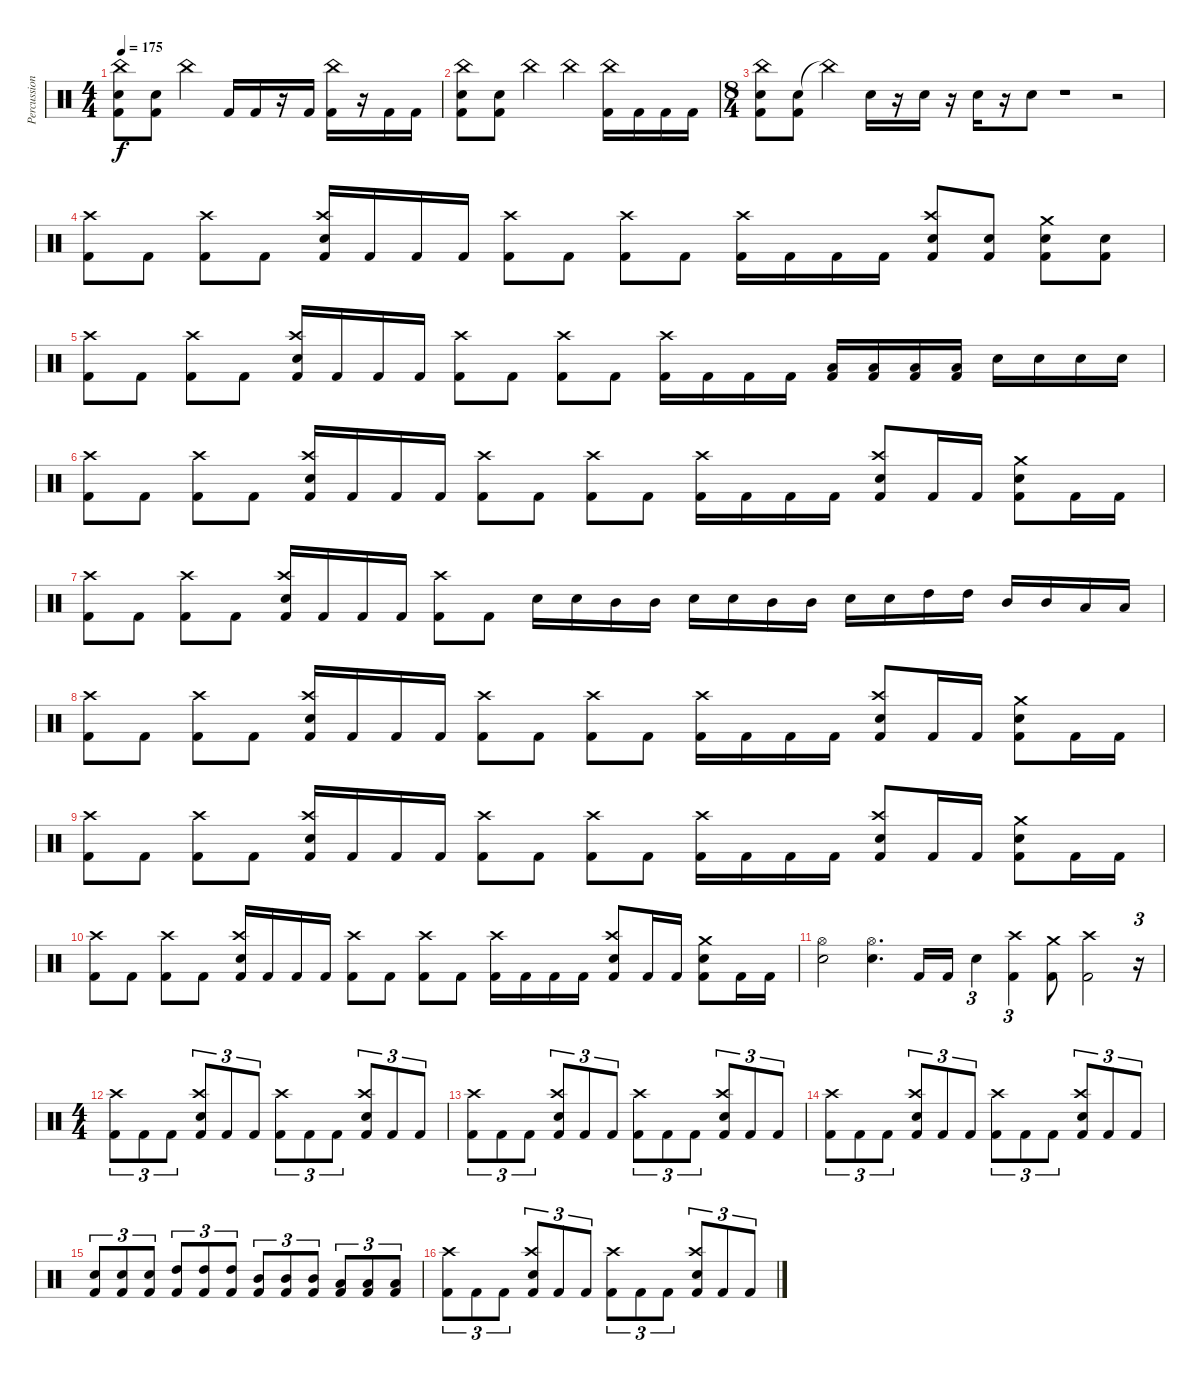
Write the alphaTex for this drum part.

\track ("Percussion" "Percussion") {instrument percussion}
\staff {score}
\articulation defaults
\ts (4 4)
\tempo 175
\clef neutral
\ks c
("China (hit)" "Snare (hit) 2" "Kick (hit) 2").8{dy f} ("Snare (hit) 2" "Kick (hit) 2").8 "China (hit)".4 "Kick (hit) 2".16 "Kick (hit) 2".16 r.16 "Kick (hit) 2".16 ("China (hit)" "Kick (hit) 2").16 r.16 "Kick (hit) 2".16 "Kick (hit) 2".16 |
("China (hit)" "Snare (hit) 2" "Kick (hit) 2").8 ("Snare (hit) 2" "Kick (hit) 2").8 "China (hit)".4 "China (hit)".4 ("China (hit)" "Kick (hit) 2").16 "Kick (hit) 2".16 "Kick (hit) 2".16 "Kick (hit) 2".16 |
\ts (8 4)
("China (hit)" "Snare (hit) 2" "Kick (hit) 2").8 ("Snare (hit) 2" "Kick (hit) 2").8 "China (hit)"{t}.4 "Snare (hit) 2".16 r.16 "Snare (hit) 2".16 r.16 "Snare (hit) 2".16 r.16 "Snare (hit) 2".8 r.1 r.2 |
("Crash high (hit)" "Kick (hit) 2").8 "Kick (hit) 2".8 ("Crash high (hit)" "Kick (hit) 2").8 "Kick (hit) 2".8 ("Crash high (hit)" "Electric Snare (hit)" "Kick (hit) 2").16 "Kick (hit) 2".16 "Kick (hit) 2".16 "Kick (hit) 2".16 ("Crash high (hit)" "Kick (hit) 2").8 "Kick (hit) 2".8 ("Crash high (hit)" "Kick (hit) 2").8 "Kick (hit) 2".8 ("Crash high (hit)" "Kick (hit) 2").16 "Kick (hit) 2".16 "Kick (hit) 2".16 "Kick (hit) 2".16 ("Crash high (hit)" "Electric Snare (hit)" "Kick (hit) 2").8 ("Electric Snare (hit)" "Kick (hit) 2").8 ("Crash medium (hit)" "Electric Snare (hit)" "Kick (hit) 2").8 ("Electric Snare (hit)" "Kick (hit) 2").8 |
("Crash high (hit)" "Kick (hit) 2").8 "Kick (hit) 2".8 ("Crash high (hit)" "Kick (hit) 2").8 "Kick (hit) 2".8 ("Crash high (hit)" "Electric Snare (hit)" "Kick (hit) 2").16 "Kick (hit) 2".16 "Kick (hit) 2".16 "Kick (hit) 2".16 ("Crash high (hit)" "Kick (hit) 2").8 "Kick (hit) 2".8 ("Crash high (hit)" "Kick (hit) 2").8 "Kick (hit) 2".8 ("Crash high (hit)" "Kick (hit) 2").16 "Kick (hit) 2".16 "Kick (hit) 2".16 "Kick (hit) 2".16 ("Low Tom (hit)" "Kick (hit) 2").16 ("Low Tom (hit)" "Kick (hit) 2").16 ("Low Tom (hit)" "Kick (hit) 2").16 ("Low Tom (hit)" "Kick (hit) 2").16 "Electric Snare (hit)".16 "Electric Snare (hit)".16 "Electric Snare (hit)".16 "Electric Snare (hit)".16 |
("Crash high (hit)" "Kick (hit) 2").8 "Kick (hit) 2".8 ("Crash high (hit)" "Kick (hit) 2").8 "Kick (hit) 2".8 ("Crash high (hit)" "Electric Snare (hit)" "Kick (hit) 2").16 "Kick (hit) 2".16 "Kick (hit) 2".16 "Kick (hit) 2".16 ("Crash high (hit)" "Kick (hit) 2").8 "Kick (hit) 2".8 ("Crash high (hit)" "Kick (hit) 2").8 "Kick (hit) 2".8 ("Crash high (hit)" "Kick (hit) 2").16 "Kick (hit) 2".16 "Kick (hit) 2".16 "Kick (hit) 2".16 ("Crash high (hit)" "Electric Snare (hit)" "Kick (hit) 2").8 "Kick (hit) 2".16 "Kick (hit) 2".16 ("Crash medium (hit)" "Electric Snare (hit)" "Kick (hit) 2").8 "Kick (hit) 2".16 "Kick (hit) 2".16 |
("Crash high (hit)" "Kick (hit) 2").8 "Kick (hit) 2".8 ("Crash high (hit)" "Kick (hit) 2").8 "Kick (hit) 2".8 ("Crash high (hit)" "Electric Snare (hit)" "Kick (hit) 2").16 "Kick (hit) 2".16 "Kick (hit) 2".16 "Kick (hit) 2".16 ("Crash high (hit)" "Kick (hit) 2").8 "Kick (hit) 2".8 "Electric Snare (hit)".16 "Electric Snare (hit)".16 "Mid Tom (hit)".16 "Mid Tom (hit)".16 "Electric Snare (hit)".16 "Electric Snare (hit)".16 "Mid Tom (hit)".16 "Mid Tom (hit)".16 "Electric Snare (hit)".16 "Electric Snare (hit)".16 "High Tom (hit)".16 "High Tom (hit)".16 "Mid Tom (hit)".16 "Mid Tom (hit)".16 "Low Tom (hit)".16 "Low Tom (hit)".16 |
("Crash high (hit)" "Kick (hit) 2").8 "Kick (hit) 2".8 ("Crash high (hit)" "Kick (hit) 2").8 "Kick (hit) 2".8 ("Crash high (hit)" "Electric Snare (hit)" "Kick (hit) 2").16 "Kick (hit) 2".16 "Kick (hit) 2".16 "Kick (hit) 2".16 ("Crash high (hit)" "Kick (hit) 2").8 "Kick (hit) 2".8 ("Crash high (hit)" "Kick (hit) 2").8 "Kick (hit) 2".8 ("Crash high (hit)" "Kick (hit) 2").16 "Kick (hit) 2".16 "Kick (hit) 2".16 "Kick (hit) 2".16 ("Crash high (hit)" "Electric Snare (hit)" "Kick (hit) 2").8 "Kick (hit) 2".16 "Kick (hit) 2".16 ("Crash medium (hit)" "Electric Snare (hit)" "Kick (hit) 2").8 "Kick (hit) 2".16 "Kick (hit) 2".16 |
("Crash high (hit)" "Kick (hit) 2").8 "Kick (hit) 2".8 ("Crash high (hit)" "Kick (hit) 2").8 "Kick (hit) 2".8 ("Crash high (hit)" "Electric Snare (hit)" "Kick (hit) 2").16 "Kick (hit) 2".16 "Kick (hit) 2".16 "Kick (hit) 2".16 ("Crash high (hit)" "Kick (hit) 2").8 "Kick (hit) 2".8 ("Crash high (hit)" "Kick (hit) 2").8 "Kick (hit) 2".8 ("Crash high (hit)" "Kick (hit) 2").16 "Kick (hit) 2".16 "Kick (hit) 2".16 "Kick (hit) 2".16 ("Crash high (hit)" "Electric Snare (hit)" "Kick (hit) 2").8 "Kick (hit) 2".16 "Kick (hit) 2".16 ("Crash medium (hit)" "Electric Snare (hit)" "Kick (hit) 2").8 "Kick (hit) 2".16 "Kick (hit) 2".16 |
("Crash high (hit)" "Kick (hit) 2").8 "Kick (hit) 2".8 ("Crash high (hit)" "Kick (hit) 2").8 "Kick (hit) 2".8 ("Crash high (hit)" "Electric Snare (hit)" "Kick (hit) 2").16 "Kick (hit) 2".16 "Kick (hit) 2".16 "Kick (hit) 2".16 ("Crash high (hit)" "Kick (hit) 2").8 "Kick (hit) 2".8 ("Crash high (hit)" "Kick (hit) 2").8 "Kick (hit) 2".8 ("Crash high (hit)" "Kick (hit) 2").16 "Kick (hit) 2".16 "Kick (hit) 2".16 "Kick (hit) 2".16 ("Crash high (hit)" "Electric Snare (hit)" "Kick (hit) 2").8 "Kick (hit) 2".16 "Kick (hit) 2".16 ("Crash medium (hit)" "Electric Snare (hit)" "Kick (hit) 2").8 "Kick (hit) 2".16 "Kick (hit) 2".16 |
("Hi-Hat (open)" "Electric Snare (hit)").2 ("Hi-Hat (open)" "Electric Snare (hit)").4{d} "Kick (hit) 2".16 "Kick (hit) 2".16 "Electric Snare (hit)".4{tu (3 2)} ("Crash high (hit)" "Kick (hit) 2").4{tu (3 2)} ("Crash medium (hit)" "Kick (hit) 2").8 ("Crash high (hit)" "Kick (hit) 2").2 r.16{tu (3 2)} |
\ts (4 4)
("Crash high (hit)" "Kick (hit) 2").8{tu (3 2)} "Kick (hit) 2".8{tu (3 2)} "Kick (hit) 2".8{tu (3 2)} ("Crash high (hit)" "Electric Snare (hit)" "Kick (hit) 2").8{tu (3 2)} "Kick (hit) 2".8{tu (3 2)} "Kick (hit) 2".8{tu (3 2)} ("Crash high (hit)" "Kick (hit) 2").8{tu (3 2)} "Kick (hit) 2".8{tu (3 2)} "Kick (hit) 2".8{tu (3 2)} ("Crash high (hit)" "Electric Snare (hit)" "Kick (hit) 2").8{tu (3 2)} "Kick (hit) 2".8{tu (3 2)} "Kick (hit) 2".8{tu (3 2)} |
("Crash high (hit)" "Kick (hit) 2").8{tu (3 2)} "Kick (hit) 2".8{tu (3 2)} "Kick (hit) 2".8{tu (3 2)} ("Crash high (hit)" "Electric Snare (hit)" "Kick (hit) 2").8{tu (3 2)} "Kick (hit) 2".8{tu (3 2)} "Kick (hit) 2".8{tu (3 2)} ("Crash high (hit)" "Kick (hit) 2").8{tu (3 2)} "Kick (hit) 2".8{tu (3 2)} "Kick (hit) 2".8{tu (3 2)} ("Crash high (hit)" "Electric Snare (hit)" "Kick (hit) 2").8{tu (3 2)} "Kick (hit) 2".8{tu (3 2)} "Kick (hit) 2".8{tu (3 2)} |
("Crash high (hit)" "Kick (hit) 2").8{tu (3 2)} "Kick (hit) 2".8{tu (3 2)} "Kick (hit) 2".8{tu (3 2)} ("Crash high (hit)" "Electric Snare (hit)" "Kick (hit) 2").8{tu (3 2)} "Kick (hit) 2".8{tu (3 2)} "Kick (hit) 2".8{tu (3 2)} ("Crash high (hit)" "Kick (hit) 2").8{tu (3 2)} "Kick (hit) 2".8{tu (3 2)} "Kick (hit) 2".8{tu (3 2)} ("Crash high (hit)" "Electric Snare (hit)" "Kick (hit) 2").8{tu (3 2)} "Kick (hit) 2".8{tu (3 2)} "Kick (hit) 2".8{tu (3 2)} |
("Electric Snare (hit)" "Kick (hit) 2").8{tu (3 2)} ("Electric Snare (hit)" "Kick (hit) 2").8{tu (3 2)} ("Electric Snare (hit)" "Kick (hit) 2").8{tu (3 2)} ("High Tom (hit)" "Kick (hit) 2").8{tu (3 2)} ("High Tom (hit)" "Kick (hit) 2").8{tu (3 2)} ("High Tom (hit)" "Kick (hit) 2").8{tu (3 2)} ("Mid Tom (hit)" "Kick (hit) 2").8{tu (3 2)} ("Mid Tom (hit)" "Kick (hit) 2").8{tu (3 2)} ("Mid Tom (hit)" "Kick (hit) 2").8{tu (3 2)} ("Low Tom (hit)" "Kick (hit) 2").8{tu (3 2)} ("Low Tom (hit)" "Kick (hit) 2").8{tu (3 2)} ("Low Tom (hit)" "Kick (hit) 2").8{tu (3 2)} |
("Crash high (hit)" "Kick (hit) 2").8{tu (3 2)} "Kick (hit) 2".8{tu (3 2)} "Kick (hit) 2".8{tu (3 2)} ("Crash high (hit)" "Electric Snare (hit)" "Kick (hit) 2").8{tu (3 2)} "Kick (hit) 2".8{tu (3 2)} "Kick (hit) 2".8{tu (3 2)} ("Crash high (hit)" "Kick (hit) 2").8{tu (3 2)} "Kick (hit) 2".8{tu (3 2)} "Kick (hit) 2".8{tu (3 2)} ("Crash high (hit)" "Electric Snare (hit)" "Kick (hit) 2").8{tu (3 2)} "Kick (hit) 2".8{tu (3 2)} "Kick (hit) 2".8{tu (3 2)}
